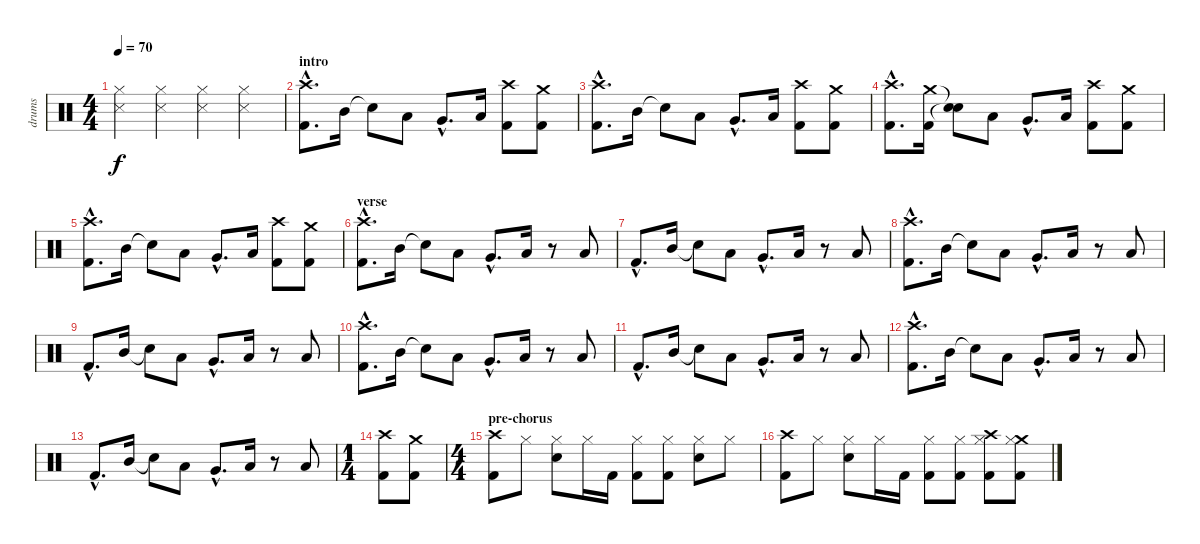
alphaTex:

\track ("drums" "drums") {instrument percussion}
\staff {score}
\articulation defaults
\ts (4 4)
\tempo 70
\clef neutral
\ks c
("Snare (side stick) 3" "Hi-Hat (closed)").4{dy f} ("Snare (side stick) 3" "Hi-Hat (closed)").4 ("Snare (side stick) 3" "Hi-Hat (closed)").4 ("Snare (side stick) 3" "Hi-Hat (closed)").4 |
\section ("" "intro")
("Crash high (hit)"{hac} "Kick (hit) 2"{hac}).8{d} "Mid Tom (hit)".16 "Snare (hit)"{t}.8 "Low Tom (hit)".8 "Very Low Tom (hit)"{hac}.8{d} "Low Floor Tom (hit)".16 ("Crash high (hit)" "Kick (hit) 2").8 ("Crash medium (hit)" "Kick (hit) 2").8 |
("Crash high (hit)"{hac} "Kick (hit) 2"{hac}).8{d} "Mid Tom (hit)".16 "Snare (hit)"{t}.8 "Low Tom (hit)".8 "Very Low Tom (hit)"{hac}.8{d} "Low Floor Tom (hit)".16 ("Crash high (hit)" "Kick (hit) 2").8 ("Crash medium (hit)" "Kick (hit) 2").8 |
("Crash high (hit)"{hac} "Kick (hit) 2"{hac}).8{d} ("Crash medium (hit)" "Kick (hit) 2").16 ("Snare (hit)"{t} "Snare (hit)"{t}).8 "Low Tom (hit)".8 "Very Low Tom (hit)"{hac}.8{d} "Low Floor Tom (hit)".16 ("Crash high (hit)" "Kick (hit) 2").8 ("Crash medium (hit)" "Kick (hit) 2").8 |
("Crash high (hit)"{hac} "Kick (hit) 2"{hac}).8{d} "Mid Tom (hit)".16 "Snare (hit)"{t}.8 "Low Tom (hit)".8 "Very Low Tom (hit)"{hac}.8{d} "Low Floor Tom (hit)".16 ("Crash high (hit)" "Kick (hit) 2").8 ("Crash medium (hit)" "Kick (hit) 2").8 |
\section ("" "verse")
("Crash high (hit)"{hac} "Kick (hit) 2"{hac}).8{d} "Mid Tom (hit)".16 "Snare (hit)"{t}.8 "Low Tom (hit)".8 "Very Low Tom (hit)"{hac}.8{d} "Low Floor Tom (hit)".16 r.8 "Low Floor Tom (hit)".8 |
"Kick (hit) 2"{hac}.8{d} "Mid Tom (hit)".16 "Snare (hit)"{t}.8 "Low Tom (hit)".8 "Very Low Tom (hit)"{hac}.8{d} "Low Floor Tom (hit)".16 r.8 "Low Floor Tom (hit)".8 |
("Crash high (hit)"{hac} "Kick (hit) 2"{hac}).8{d} "Mid Tom (hit)".16 "Snare (hit)"{t}.8 "Low Tom (hit)".8 "Very Low Tom (hit)"{hac}.8{d} "Low Floor Tom (hit)".16 r.8 "Low Floor Tom (hit)".8 |
"Kick (hit) 2"{hac}.8{d} "Mid Tom (hit)".16 "Snare (hit)"{t}.8 "Low Tom (hit)".8 "Very Low Tom (hit)"{hac}.8{d} "Low Floor Tom (hit)".16 r.8 "Low Floor Tom (hit)".8 |
("Crash high (hit)"{hac} "Kick (hit) 2"{hac}).8{d} "Mid Tom (hit)".16 "Snare (hit)"{t}.8 "Low Tom (hit)".8 "Very Low Tom (hit)"{hac}.8{d} "Low Floor Tom (hit)".16 r.8 "Low Floor Tom (hit)".8 |
"Kick (hit) 2"{hac}.8{d} "Mid Tom (hit)".16 "Snare (hit)"{t}.8 "Low Tom (hit)".8 "Very Low Tom (hit)"{hac}.8{d} "Low Floor Tom (hit)".16 r.8 "Low Floor Tom (hit)".8 |
("Crash high (hit)"{hac} "Kick (hit) 2"{hac}).8{d} "Mid Tom (hit)".16 "Snare (hit)"{t}.8 "Low Tom (hit)".8 "Very Low Tom (hit)"{hac}.8{d} "Low Floor Tom (hit)".16 r.8 "Low Floor Tom (hit)".8 |
"Kick (hit) 2"{hac}.8{d} "Mid Tom (hit)".16 "Snare (hit)"{t}.8 "Low Tom (hit)".8 "Very Low Tom (hit)"{hac}.8{d} "Low Floor Tom (hit)".16 r.8 "Low Floor Tom (hit)".8 |
\ts (1 4)
("Crash high (hit)" "Kick (hit) 2").8 ("Crash medium (hit)" "Kick (hit) 2").8 |
\ts (4 4)
\section ("" "pre-chorus")
("Crash high (hit)" "Kick (hit) 2").8 "Hi-Hat (closed)".8 ("Hi-Hat (closed)" "Snare (hit) 2").8 "Hi-Hat (closed)".16 "Kick (hit) 2".16 ("Hi-Hat (closed)" "Kick (hit) 2").8 ("Hi-Hat (closed)" "Kick (hit) 2").8 ("Hi-Hat (closed)" "Snare (hit) 2").8 "Hi-Hat (closed)".8 |
("Crash high (hit)" "Kick (hit) 2").8 "Hi-Hat (closed)".8 ("Hi-Hat (closed)" "Snare (hit) 2").8 "Hi-Hat (closed)".16 "Kick (hit) 2".16 ("Hi-Hat (closed)" "Kick (hit) 2").8 ("Hi-Hat (closed)" "Kick (hit) 2").8 ("Crash high (hit)" "Hi-Hat (closed)" "Kick (hit) 2").8 ("Crash medium (hit)" "Hi-Hat (closed)" "Kick (hit) 2").8
